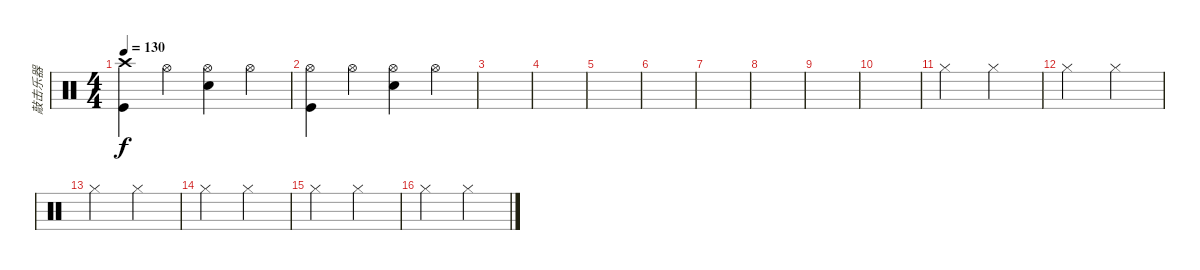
\track ("敲击乐器" "敲击乐器") {instrument percussion}
\staff {score}
\articulation defaults
\ts (4 4)
\tempo 130
\clef neutral
\ks c
("Crash high (hit)" "Kick (hit)").4{dy f} "Hi-Hat (open)".4 ("Hi-Hat (open)" "Electric Snare (hit)").4 "Hi-Hat (open)".4 |
("Hi-Hat (open)" "Kick (hit)").4 "Hi-Hat (open)".4 ("Hi-Hat (open)" "Electric Snare (hit)").4 "Hi-Hat (open)".4 |
|
|
|
|
|
|
|
|
"Hi-Hat (closed)".2 "Hi-Hat (closed)".2 |
"Hi-Hat (closed)".2 "Hi-Hat (closed)".2 |
"Hi-Hat (closed)".2 "Hi-Hat (closed)".2 |
"Hi-Hat (closed)".2 "Hi-Hat (closed)".2 |
"Hi-Hat (closed)".2 "Hi-Hat (closed)".2 |
"Hi-Hat (closed)".2 "Hi-Hat (closed)".2
